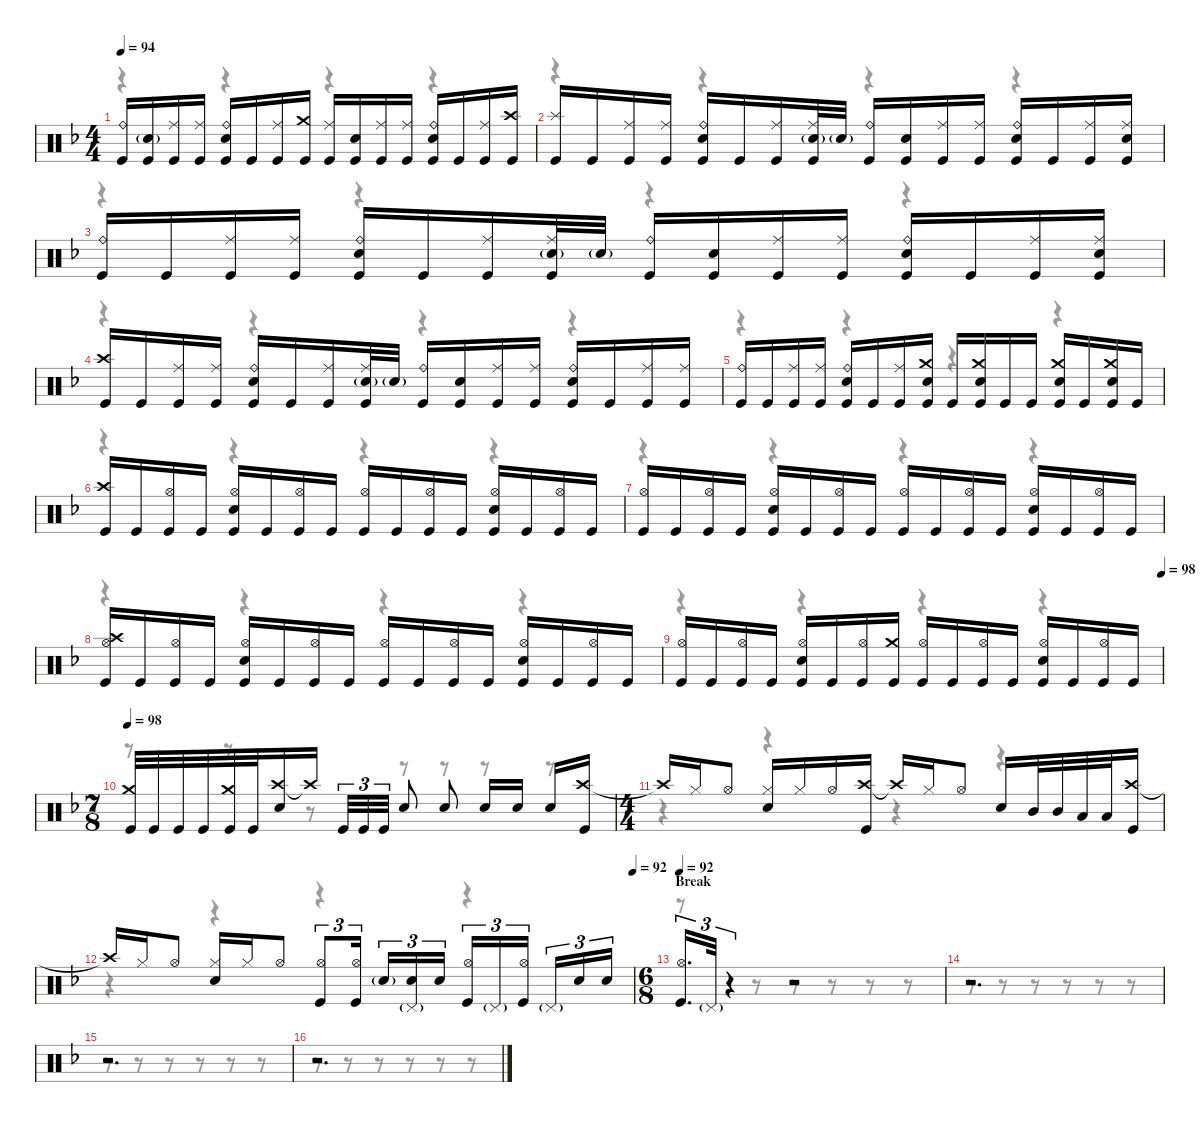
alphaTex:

\defaultSystemsLayout 4
\hideDynamics
\bracketExtendMode nobrackets
\singleTrackTrackNamePolicy hidden
\multiTrackTrackNamePolicy hidden
\otherSystemsTrackNameOrientation horizontal
\track ("M. Lopez" "drm.") {instrument percussion}
\staff {score}
\articulation defaults
\voice
\ts (4 4)
\tempo 94
\clef neutral
\ks dminor
("Ride (bell)"{acc forcenatural} "Kick (hit)"{acc forcenatural}).16{dy f beam Up} ("Snare (hit) 2"{g acc forcenatural} "Kick (hit)"{acc forcenatural}).16{beam Up} ("Ride (middle)"{acc forcenatural} "Kick (hit)"{acc forcenatural}).16{beam Up} ("Ride (middle)"{acc forcenatural} "Kick (hit)"{acc forcenatural}).16{beam Up} ("Ride (bell)"{acc forcenatural} "Snare (hit) 2"{acc forcenatural} "Kick (hit)"{acc forcenatural}).16{beam Up} "Kick (hit)"{acc forcenatural}.16{beam Up} ("Ride (middle)"{acc forcenatural} "Kick (hit)"{acc forcenatural}).16{beam Up} ("Crash medium (hit)"{acc forcenatural} "Kick (hit)"{acc forcenatural}).16{beam Up} ("Ride (middle)"{acc forcenatural} "Kick (hit)"{acc forcenatural}).16{beam Up} ("Snare (hit) 2"{acc forcenatural} "Kick (hit)"{acc forcenatural}).16{beam Up} ("Ride (middle)"{acc forcenatural} "Kick (hit)"{acc forcenatural}).16{beam Up} ("Ride (middle)"{acc forcenatural} "Kick (hit)"{acc forcenatural}).16{beam Up} ("Ride (bell)"{acc forcenatural} "Snare (hit) 2"{acc forcenatural} "Kick (hit)"{acc forcenatural}).16{beam Up} "Kick (hit)"{acc forcenatural}.16{beam Up} ("Ride (middle)"{acc forcenatural} "Kick (hit)"{acc forcenatural}).16{beam Up} ("Crash high (hit)"{acc forcenatural} "Kick (hit)"{acc forcenatural}).16{beam Up} |
("Splash (hit)"{acc forcenatural} "Kick (hit)"{acc forcenatural}).16{beam Up} "Kick (hit)"{acc forcenatural}.16{beam Up} ("Ride (middle)"{acc forcenatural} "Kick (hit)"{acc forcenatural}).16{beam Up} ("Ride (middle)"{acc forcenatural} "Kick (hit)"{acc forcenatural}).16{beam Up} ("Ride (bell)"{acc forcenatural} "Snare (hit) 2"{acc forcenatural} "Kick (hit)"{acc forcenatural}).16{beam Up} "Kick (hit)"{acc forcenatural}.16{beam Up} ("Ride (middle)"{acc forcenatural} "Kick (hit)"{acc forcenatural}).16{beam Up} ("Ride (middle)"{acc forcenatural} "Snare (hit) 2"{g acc forcenatural} "Kick (hit)"{acc forcenatural}).32{beam Up} "Snare (hit) 2"{g acc forcenatural}.32{dy mf beam Up} ("Ride (bell)"{acc forcenatural} "Kick (hit)"{acc forcenatural}).16{dy f beam Up} ("Snare (hit) 2"{acc forcenatural} "Kick (hit)"{acc forcenatural}).16{beam Up} ("Ride (middle)"{acc forcenatural} "Kick (hit)"{acc forcenatural}).16{beam Up} ("Ride (middle)"{acc forcenatural} "Kick (hit)"{acc forcenatural}).16{beam Up} ("Ride (bell)"{acc forcenatural} "Snare (hit) 2"{acc forcenatural} "Kick (hit)"{acc forcenatural}).16{beam Up} "Kick (hit)"{acc forcenatural}.16{beam Up} ("Ride (middle)"{acc forcenatural} "Kick (hit)"{acc forcenatural}).16{beam Up} ("Ride (middle)"{acc forcenatural} "Snare (hit) 2"{acc forcenatural} "Kick (hit)"{acc forcenatural}).16{beam Up} |
("Ride (bell)"{acc forcenatural} "Kick (hit)"{acc forcenatural}).16{beam Up} "Kick (hit)"{acc forcenatural}.16{beam Up} ("Ride (middle)"{acc forcenatural} "Kick (hit)"{acc forcenatural}).16{beam Up} ("Ride (middle)"{acc forcenatural} "Kick (hit)"{acc forcenatural}).16{beam Up} ("Ride (bell)"{acc forcenatural} "Snare (hit) 2"{acc forcenatural} "Kick (hit)"{acc forcenatural}).16{beam Up} "Kick (hit)"{acc forcenatural}.16{beam Up} ("Ride (middle)"{acc forcenatural} "Kick (hit)"{acc forcenatural}).16{beam Up} ("Ride (middle)"{acc forcenatural} "Snare (hit) 2"{g acc forcenatural} "Kick (hit)"{acc forcenatural}).32{beam Up} "Snare (hit) 2"{g acc forcenatural}.32{dy mf beam Up} ("Ride (bell)"{acc forcenatural} "Kick (hit)"{acc forcenatural}).16{dy f beam Up} ("Snare (hit) 2"{acc forcenatural} "Kick (hit)"{acc forcenatural}).16{beam Up} ("Ride (middle)"{acc forcenatural} "Kick (hit)"{acc forcenatural}).16{beam Up} ("Ride (middle)"{acc forcenatural} "Kick (hit)"{acc forcenatural}).16{beam Up} ("Ride (bell)"{acc forcenatural} "Snare (hit) 2"{acc forcenatural} "Kick (hit)"{acc forcenatural}).16{beam Up} "Kick (hit)"{acc forcenatural}.16{beam Up} ("Ride (middle)"{acc forcenatural} "Kick (hit)"{acc forcenatural}).16{beam Up} ("Ride (middle)"{acc forcenatural} "Snare (hit) 2"{acc forcenatural} "Kick (hit)"{acc forcenatural}).16{beam Up} |
("Crash high (hit)"{acc forcenatural} "Kick (hit)"{acc forcenatural}).16{beam Up} "Kick (hit)"{acc forcenatural}.16{beam Up} ("Ride (middle)"{acc forcenatural} "Kick (hit)"{acc forcenatural}).16{beam Up} ("Ride (middle)"{acc forcenatural} "Kick (hit)"{acc forcenatural}).16{beam Up} ("Ride (bell)"{acc forcenatural} "Snare (hit) 2"{acc forcenatural} "Kick (hit)"{acc forcenatural}).16{beam Up} "Kick (hit)"{acc forcenatural}.16{beam Up} ("Ride (middle)"{acc forcenatural} "Kick (hit)"{acc forcenatural}).16{beam Up} ("Ride (middle)"{acc forcenatural} "Snare (hit) 2"{g acc forcenatural} "Kick (hit)"{acc forcenatural}).32{beam Up} "Snare (hit) 2"{g acc forcenatural}.32{dy mf beam Up} ("Ride (bell)"{acc forcenatural} "Kick (hit)"{acc forcenatural}).16{dy f beam Up} ("Snare (hit) 2"{acc forcenatural} "Kick (hit)"{acc forcenatural}).16{beam Up} ("Ride (middle)"{acc forcenatural} "Kick (hit)"{acc forcenatural}).16{beam Up} ("Ride (middle)"{acc forcenatural} "Kick (hit)"{acc forcenatural}).16{beam Up} ("Ride (bell)"{acc forcenatural} "Snare (hit) 2"{acc forcenatural} "Kick (hit)"{acc forcenatural}).16{beam Up} "Kick (hit)"{acc forcenatural}.16{beam Up} ("Ride (middle)"{acc forcenatural} "Kick (hit)"{acc forcenatural}).16{beam Up} ("Ride (middle)"{acc forcenatural} "Kick (hit)"{acc forcenatural}).16{beam Up} |
("Ride (bell)"{acc forcenatural} "Kick (hit)"{acc forcenatural}).16{beam Up} "Kick (hit)"{acc forcenatural}.16{beam Up} ("Ride (middle)"{acc forcenatural} "Kick (hit)"{acc forcenatural}).16{beam Up} ("Ride (middle)"{acc forcenatural} "Kick (hit)"{acc forcenatural}).16{beam Up} ("Ride (bell)"{acc forcenatural} "Snare (hit) 2"{acc forcenatural} "Kick (hit)"{acc forcenatural}).16{beam Up} "Kick (hit)"{acc forcenatural}.16{beam Up} ("Ride (middle)"{acc forcenatural} "Kick (hit)"{acc forcenatural}).16{beam Up} ("Crash medium (hit)"{acc forcenatural} "Snare (hit) 2"{acc forcenatural} "Kick (hit)"{acc forcenatural}).16{beam Up} "Kick (hit)"{acc forcenatural}.16{beam Up} ("Crash medium (hit)"{acc forcenatural} "Snare (hit) 2"{acc forcenatural} "Kick (hit)"{acc forcenatural}).16{beam Up} "Kick (hit)"{acc forcenatural}.16{beam Up} "Kick (hit)"{acc forcenatural}.16{beam Up} ("Crash medium (hit)"{acc forcenatural} "Snare (hit) 2"{acc forcenatural} "Kick (hit)"{acc forcenatural}).16{beam Up} "Kick (hit)"{acc forcenatural}.16{beam Up} ("Crash medium (hit)"{acc forcenatural} "Snare (hit) 2"{acc forcenatural} "Kick (hit)"{acc forcenatural}).16{beam Up} "Kick (hit)"{acc forcenatural}.16{beam Up} |
("Crash high (hit)"{acc forcenatural} "Kick (hit)"{acc forcenatural}).16{beam Up} "Kick (hit)"{acc forcenatural}.16{beam Up} ("Hi-Hat (open)"{acc forcenatural} "Kick (hit)"{acc forcenatural}).16{beam Up} "Kick (hit)"{acc forcenatural}.16{beam Up} ("Hi-Hat (open)"{acc forcenatural} "Snare (hit) 2"{acc forcenatural} "Kick (hit)"{acc forcenatural}).16{beam Up} "Kick (hit)"{acc forcenatural}.16{beam Up} ("Hi-Hat (open)"{acc forcenatural} "Kick (hit)"{acc forcenatural}).16{beam Up} "Kick (hit)"{acc forcenatural}.16{beam Up} ("Hi-Hat (open)"{acc forcenatural} "Kick (hit)"{acc forcenatural}).16{beam Up} "Kick (hit)"{acc forcenatural}.16{beam Up} ("Hi-Hat (open)"{acc forcenatural} "Kick (hit)"{acc forcenatural}).16{beam Up} "Kick (hit)"{acc forcenatural}.16{beam Up} ("Hi-Hat (open)"{acc forcenatural} "Snare (hit) 2"{acc forcenatural} "Kick (hit)"{acc forcenatural}).16{beam Up} "Kick (hit)"{acc forcenatural}.16{beam Up} ("Hi-Hat (open)"{acc forcenatural} "Kick (hit)"{acc forcenatural}).16{beam Up} "Kick (hit)"{acc forcenatural}.16{beam Up} |
("Hi-Hat (open)"{acc forcenatural} "Kick (hit)"{acc forcenatural}).16{beam Up} "Kick (hit)"{acc forcenatural}.16{beam Up} ("Hi-Hat (open)"{acc forcenatural} "Kick (hit)"{acc forcenatural}).16{beam Up} "Kick (hit)"{acc forcenatural}.16{beam Up} ("Hi-Hat (open)"{acc forcenatural} "Snare (hit) 2"{acc forcenatural} "Kick (hit)"{acc forcenatural}).16{beam Up} "Kick (hit)"{acc forcenatural}.16{beam Up} ("Hi-Hat (open)"{acc forcenatural} "Kick (hit)"{acc forcenatural}).16{beam Up} "Kick (hit)"{acc forcenatural}.16{beam Up} ("Hi-Hat (open)"{acc forcenatural} "Kick (hit)"{acc forcenatural}).16{beam Up} "Kick (hit)"{acc forcenatural}.16{beam Up} ("Hi-Hat (open)"{acc forcenatural} "Kick (hit)"{acc forcenatural}).16{beam Up} "Kick (hit)"{acc forcenatural}.16{beam Up} ("Hi-Hat (open)"{acc forcenatural} "Snare (hit) 2"{acc forcenatural} "Kick (hit)"{acc forcenatural}).16{beam Up} "Kick (hit)"{acc forcenatural}.16{beam Up} ("Hi-Hat (open)"{acc forcenatural} "Kick (hit)"{acc forcenatural}).16{beam Up} "Kick (hit)"{acc forcenatural}.16{beam Up} |
("Crash high (hit)"{acc forcenatural} "Hi-Hat (open)"{acc forcenatural} "Kick (hit)"{acc forcenatural}).16{dy mf beam Up} "Kick (hit)"{acc forcenatural}.16{dy f beam Up} ("Hi-Hat (open)"{acc forcenatural} "Kick (hit)"{acc forcenatural}).16{beam Up} "Kick (hit)"{acc forcenatural}.16{beam Up} ("Hi-Hat (open)"{acc forcenatural} "Snare (hit) 2"{acc forcenatural} "Kick (hit)"{acc forcenatural}).16{beam Up} "Kick (hit)"{acc forcenatural}.16{beam Up} ("Hi-Hat (open)"{acc forcenatural} "Kick (hit)"{acc forcenatural}).16{beam Up} "Kick (hit)"{acc forcenatural}.16{beam Up} ("Hi-Hat (open)"{acc forcenatural} "Kick (hit)"{acc forcenatural}).16{beam Up} "Kick (hit)"{acc forcenatural}.16{beam Up} ("Hi-Hat (open)"{acc forcenatural} "Kick (hit)"{acc forcenatural}).16{beam Up} "Kick (hit)"{acc forcenatural}.16{beam Up} ("Hi-Hat (open)"{acc forcenatural} "Snare (hit) 2"{acc forcenatural} "Kick (hit)"{acc forcenatural}).16{beam Up} "Kick (hit)"{acc forcenatural}.16{beam Up} ("Hi-Hat (open)"{acc forcenatural} "Kick (hit)"{acc forcenatural}).16{beam Up} "Kick (hit)"{acc forcenatural}.16{beam Up} |
\tempo (98 1)
("Hi-Hat (open)"{acc forcenatural} "Kick (hit)"{acc forcenatural}).16{beam Up} "Kick (hit)"{acc forcenatural}.16{beam Up} ("Hi-Hat (open)"{acc forcenatural} "Kick (hit)"{acc forcenatural}).16{beam Up} "Kick (hit)"{acc forcenatural}.16{beam Up} ("Hi-Hat (open)"{acc forcenatural} "Snare (hit) 2"{acc forcenatural} "Kick (hit)"{acc forcenatural}).16{beam Up} "Kick (hit)"{acc forcenatural}.16{beam Up} ("Hi-Hat (open)"{acc forcenatural} "Kick (hit)"{acc forcenatural}).16{beam Up} ("Crash medium (hit)"{acc forcenatural} "Kick (hit)"{acc forcenatural}).16{dy mp beam Up} ("Hi-Hat (open)"{acc forcenatural} "Kick (hit)"{acc forcenatural}).16{dy f beam Up} "Kick (hit)"{acc forcenatural}.16{beam Up} ("Hi-Hat (open)"{acc forcenatural} "Kick (hit)"{acc forcenatural}).16{beam Up} "Kick (hit)"{acc forcenatural}.16{beam Up} ("Hi-Hat (open)"{acc forcenatural} "Snare (hit) 2"{acc forcenatural} "Kick (hit)"{acc forcenatural}).16{beam Up} "Kick (hit)"{acc forcenatural}.16{beam Up} ("Hi-Hat (open)"{acc forcenatural} "Kick (hit)"{acc forcenatural}).16{beam Up} "Kick (hit)"{acc forcenatural}.16{beam Up} |
\ts (7 8)
\beaming (8 4 1 1 1)
\tempo 98
("Crash medium (hit)"{acc forcenatural} "Kick (hit)"{acc forcenatural}).32{beam Up} "Kick (hit)"{acc forcenatural}.32{beam Up} "Kick (hit)"{acc forcenatural}.32{beam Up} "Kick (hit)"{acc forcenatural}.32{beam Up} ("Crash medium (hit)"{acc forcenatural} "Kick (hit)"{acc forcenatural}).32{beam Up} "Kick (hit)"{acc forcenatural}.32{beam Up} ("Crash high (hit)"{acc forcenatural} "Snare (hit) 2"{acc forcenatural}).16{beam Up} "Crash high (hit)"{t acc forcenatural}.16{beam Up} "Kick (hit)"{acc forcenatural}.32{tu (3 2) beam Up} "Kick (hit)"{acc forcenatural}.32{tu (3 2) beam Up} "Kick (hit)"{acc forcenatural}.32{tu (3 2) beam Up} "Snare (hit) 2"{acc forcenatural}.8{beam Up} "Snare (hit) 2"{acc forcenatural}.8{beam Up} "Snare (hit) 2"{acc forcenatural}.16{beam Up} "Snare (hit) 2"{acc forcenatural}.16{beam Up} "Snare (hit) 2"{acc forcenatural}.16{beam Up} ("Crash high (hit)"{acc forcenatural} "Kick (hit)"{acc forcenatural}).16{beam Up} |
\ts (4 4)
\beaming (8 2 2 2 2)
"Crash high (hit)"{t acc forcenatural}.16{beam Up} "Hi-Hat (closed)"{acc forcenatural}.16{beam Up} "Hi-Hat (open)"{acc forcenatural}.8{beam Up} ("Hi-Hat (closed)"{acc forcenatural} "Snare (hit) 2"{acc forcenatural}).16{beam Up} "Hi-Hat (closed)"{acc forcenatural}.16{beam Up} "Hi-Hat (open)"{acc forcenatural}.16{beam Up} ("Crash high (hit)"{acc forcenatural} "Kick (hit)"{acc forcenatural}).16{beam Up} "Crash high (hit)"{t acc forcenatural}.16{beam Up} "Hi-Hat (closed)"{acc forcenatural}.16{beam Up} "Hi-Hat (open)"{acc forcenatural}.8{beam Up} "Snare (hit) 2"{acc forcenatural}.16{beam Up} "Mid Tom (hit)"{acc forcenatural}.32{beam Up} "Mid Tom (hit)"{acc forcenatural}.32{beam Up} "Low Tom (hit)"{acc forcenatural}.32{beam Up} "Low Tom (hit)"{acc forcenatural}.32{beam Up} ("Crash high (hit)"{acc forcenatural} "Kick (hit)"{acc forcenatural}).16{beam Up} |
\tempo (92 1)
"Crash high (hit)"{t acc forcenatural}.16{beam Up} "Hi-Hat (closed)"{acc forcenatural}.16{beam Up} "Hi-Hat (open)"{acc forcenatural}.8{beam Up} ("Hi-Hat (closed)"{acc forcenatural} "Snare (hit) 2"{acc forcenatural}).16{beam Up} "Hi-Hat (closed)"{acc forcenatural}.16{beam Up} "Hi-Hat (open)"{acc forcenatural}.8{beam Up} ("Hi-Hat (open)"{acc forcenatural} "Kick (hit)"{acc forcenatural}).8{tu (3 2) beam Up} ("Hi-Hat (open)"{acc forcenatural} "Kick (hit)"{acc forcenatural}).16{tu (3 2) beam Up} "Snare (hit) 2"{g acc forcenatural}.16{tu (3 2) dy mf beam Up} ("Pedal Hi-Hat (hit)"{g acc forcenatural} "Snare (hit) 2"{acc forcenatural}).16{tu (3 2) dy f beam Up} "Snare (hit) 2"{acc forcenatural}.16{tu (3 2) beam Up} ("Hi-Hat (open)"{acc forcenatural} "Kick (hit)"{acc forcenatural}).16{tu (3 2) beam Up} "Pedal Hi-Hat (hit)"{g acc forcenatural}.16{tu (3 2) dy mf beam Up} ("Hi-Hat (open)"{acc forcenatural} "Kick (hit)"{acc forcenatural}).16{tu (3 2) dy f beam Up} "Pedal Hi-Hat (hit)"{g acc forcenatural}.16{tu (3 2) dy mf beam Up} "Snare (hit) 2"{acc forcenatural}.16{tu (3 2) dy f beam Up} "Snare (hit) 2"{acc forcenatural}.16{tu (3 2) beam Up} |
\ts (6 8)
\beaming (8 3 1 1 1)
\section ("" "Break")
\tempo 92
("Hi-Hat (open)"{acc forcenatural} "Kick (hit)"{acc forcenatural}).16{d tu (3 2) beam Up} "Pedal Hi-Hat (hit)"{g acc forcenatural}.32{tu (3 2) dy mf beam Up} r.4{tu (3 2) beam Up} r.2{beam Up} |
r.2{d beam Up} |
r.2{d beam Up} |
r.2{d beam Up}
\voice
\clef neutral
\ottava regular
\simile none
\ks dminor
r.4{dy mf beam Down} r.4{beam Down} r.4{beam Down} r.4{beam Down} |
r.4{beam Down} r.4{beam Down} r.4{beam Down} r.4{beam Down} |
r.4{beam Down} r.4{beam Down} r.4{beam Down} r.4{beam Down} |
r.4{beam Down} r.4{beam Down} r.4{beam Down} r.4{beam Down} |
r.4{beam Down} r.4{beam Down} r.4{beam Down} r.4{beam Down} |
r.4{beam Down} r.4{beam Down} r.4{beam Down} r.4{beam Down} |
r.4{beam Down} r.4{beam Down} r.4{beam Down} r.4{beam Down} |
r.4{beam Down} r.4{beam Down} r.4{beam Down} r.4{beam Down} |
r.4{beam Down} r.4{beam Down} r.4{beam Down} r.4{beam Down} |
r.8{beam Down} r.8{beam Down} r.8{beam Down} r.8{beam Down} r.8{beam Down} r.8{beam Down} r.8{beam Down} |
r.4{beam Down} r.4{beam Down} r.4{beam Down} r.4{beam Down} |
r.4{beam Down} r.4{beam Down} r.4{beam Down} r.4{beam Down} |
r.8{beam Down} r.8{beam Down} r.8{beam Down} r.8{beam Down} r.8{beam Down} r.8{beam Down} |
r.8{beam Down} r.8{beam Down} r.8{beam Down} r.8{beam Down} r.8{beam Down} r.8{beam Down} |
r.8{beam Down} r.8{beam Down} r.8{beam Down} r.8{beam Down} r.8{beam Down} r.8{beam Down} |
r.8{beam Down} r.8{beam Down} r.8{beam Down} r.8{beam Down} r.8{beam Down} r.8{beam Down}
